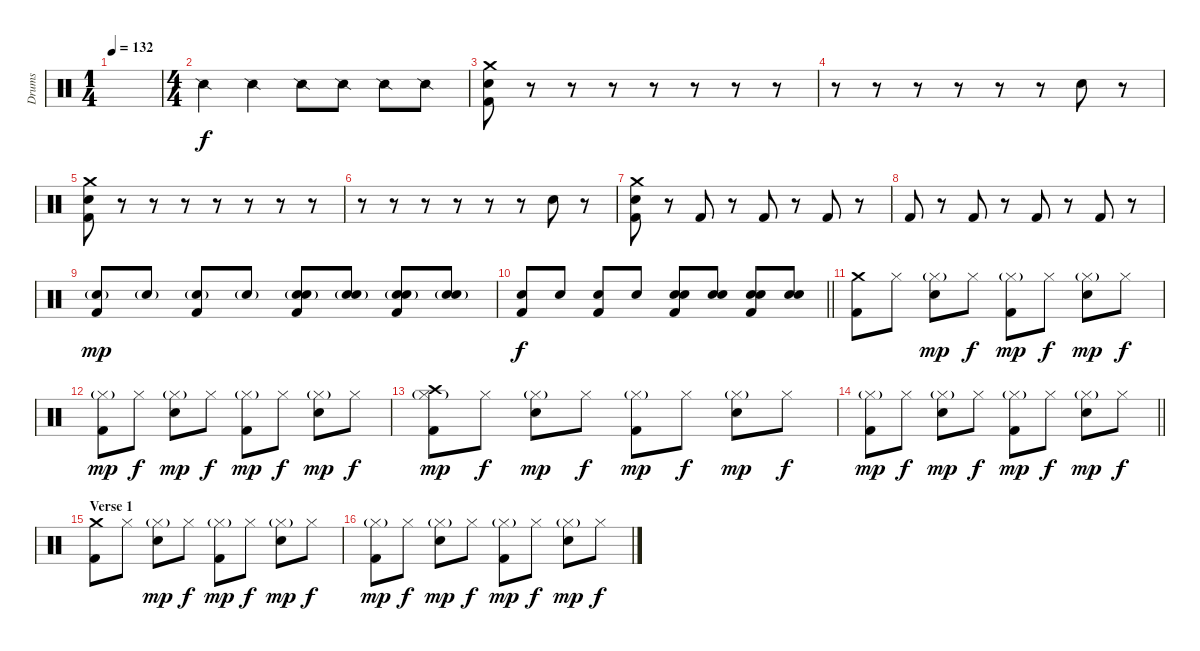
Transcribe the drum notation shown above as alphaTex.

\track ("Drums" "Drums") {instrument percussion}
\staff {score}
\articulation defaults
\ts (1 4)
\tempo 132
\clef neutral
\ks c
|
\ts (4 4)
"Snare (side stick) 2".4 "Snare (side stick) 2".4 "Snare (side stick) 2".8 "Snare (side stick) 2".8 "Snare (side stick) 2".8 "Snare (side stick) 2".8 |
("Crash medium (hit)" "Snare (hit) 2" "Kick (hit) 2").8 r.8 r.8 r.8 r.8 r.8 r.8 r.8 |
r.8 r.8 r.8 r.8 r.8 r.8 "Snare (hit) 2".8 r.8 |
("Crash medium (hit)" "Snare (hit) 2" "Kick (hit) 2").8 r.8 r.8 r.8 r.8 r.8 r.8 r.8 |
r.8 r.8 r.8 r.8 r.8 r.8 "Snare (hit) 2".8 r.8 |
("Crash medium (hit)" "Snare (hit) 2" "Kick (hit) 2").8 r.8 "Kick (hit) 2".8 r.8 "Kick (hit) 2".8 r.8 "Kick (hit) 2".8 r.8 |
"Kick (hit) 2".8 r.8 "Kick (hit) 2".8 r.8 "Kick (hit) 2".8 r.8 "Kick (hit) 2".8 r.8 |
("Snare (hit) 2"{g} "Kick (hit) 2").8{dy mp} "Snare (hit) 2"{g}.8 ("Snare (hit) 2"{g} "Kick (hit) 2").8 "Snare (hit) 2"{g}.8 ("Snare (hit) 2"{g} "Snare (hit) 2"{g} "Kick (hit) 2").8 ("Snare (hit) 2"{g} "Snare (hit) 2"{g}).8 ("Snare (hit) 2"{g} "Snare (hit) 2"{g} "Kick (hit) 2").8 ("Snare (hit) 2"{g} "Snare (hit) 2"{g}).8 |
\barLineRight lightlight
("Snare (hit) 2" "Kick (hit) 2").8{dy f} "Snare (hit) 2".8 ("Snare (hit) 2" "Kick (hit) 2").8 "Snare (hit) 2".8 ("Snare (hit) 2" "Snare (hit) 2" "Kick (hit) 2").8 ("Snare (hit) 2" "Snare (hit) 2").8 ("Snare (hit) 2" "Snare (hit) 2" "Kick (hit) 2").8 ("Snare (hit) 2" "Snare (hit) 2").8 |
("Crash medium (hit)" "Kick (hit) 2").8 "Hi-Hat (closed)".8 ("Hi-Hat (closed)"{g} "Snare (hit) 2").8{dy mp} "Hi-Hat (closed)".8{dy f} ("Hi-Hat (closed)"{g} "Kick (hit) 2").8{dy mp} "Hi-Hat (closed)".8{dy f} ("Hi-Hat (closed)"{g} "Snare (hit) 2").8{dy mp} "Hi-Hat (closed)".8{dy f} |
("Hi-Hat (closed)"{g} "Kick (hit) 2").8{dy mp} "Hi-Hat (closed)".8{dy f} ("Hi-Hat (closed)"{g} "Snare (hit) 2").8{dy mp} "Hi-Hat (closed)".8{dy f} ("Hi-Hat (closed)"{g} "Kick (hit) 2").8{dy mp} "Hi-Hat (closed)".8{dy f} ("Hi-Hat (closed)"{g} "Snare (hit) 2").8{dy mp} "Hi-Hat (closed)".8{dy f} |
("Hi-Hat (closed)"{g} "Crash high (hit)" "Kick (hit) 2").8{dy mp} "Hi-Hat (closed)".8{dy f} ("Hi-Hat (closed)"{g} "Snare (hit) 2").8{dy mp} "Hi-Hat (closed)".8{dy f} ("Hi-Hat (closed)"{g} "Kick (hit) 2").8{dy mp} "Hi-Hat (closed)".8{dy f} ("Hi-Hat (closed)"{g} "Snare (hit) 2").8{dy mp} "Hi-Hat (closed)".8{dy f} |
\barLineRight lightlight
("Hi-Hat (closed)"{g} "Kick (hit) 2").8{dy mp} "Hi-Hat (closed)".8{dy f} ("Hi-Hat (closed)"{g} "Snare (hit) 2").8{dy mp} "Hi-Hat (closed)".8{dy f} ("Hi-Hat (closed)"{g} "Kick (hit) 2").8{dy mp} "Hi-Hat (closed)".8{dy f} ("Hi-Hat (closed)"{g} "Snare (hit) 2").8{dy mp} "Hi-Hat (closed)".8{dy f} |
\section ("" "Verse 1")
("Crash medium (hit)" "Kick (hit) 2").8 "Hi-Hat (closed)".8 ("Hi-Hat (closed)"{g} "Snare (hit) 2").8{dy mp} "Hi-Hat (closed)".8{dy f} ("Hi-Hat (closed)"{g} "Kick (hit) 2").8{dy mp} "Hi-Hat (closed)".8{dy f} ("Hi-Hat (closed)"{g} "Snare (hit) 2").8{dy mp} "Hi-Hat (closed)".8{dy f} |
("Hi-Hat (closed)"{g} "Kick (hit) 2").8{dy mp} "Hi-Hat (closed)".8{dy f} ("Hi-Hat (closed)"{g} "Snare (hit) 2").8{dy mp} "Hi-Hat (closed)".8{dy f} ("Hi-Hat (closed)"{g} "Kick (hit) 2").8{dy mp} "Hi-Hat (closed)".8{dy f} ("Hi-Hat (closed)"{g} "Snare (hit) 2").8{dy mp} "Hi-Hat (closed)".8{dy f}
